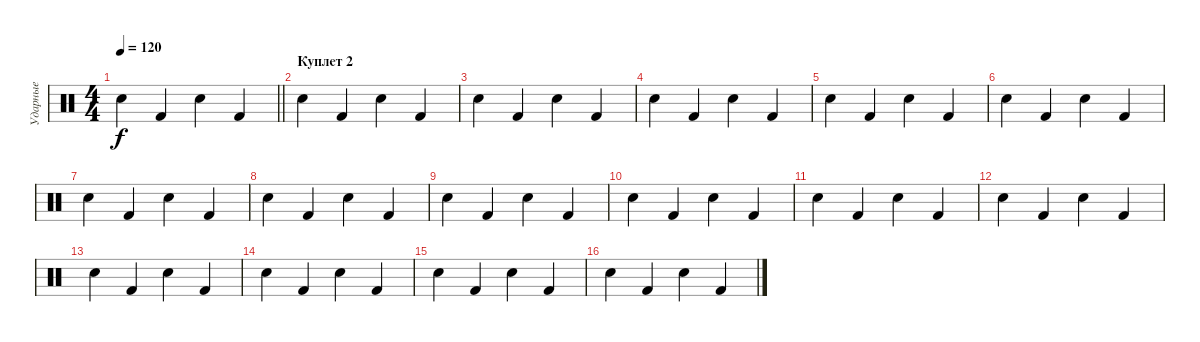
\track ("Ударные" "Ударные") {instrument percussion}
\staff {score}
\articulation defaults
\ts (4 4)
\tempo 120
\clef neutral
\barLineRight lightlight
\ks c "Electric Snare (hit)".4{dy f} "Kick (hit) 2".4 "Electric Snare (hit)".4 "Kick (hit) 2".4
|
\section ("" "Куплет 2")
"Electric Snare (hit)".4 "Kick (hit) 2".4 "Electric Snare (hit)".4 "Kick (hit) 2".4 |
"Electric Snare (hit)".4 "Kick (hit) 2".4 "Electric Snare (hit)".4 "Kick (hit) 2".4 |
"Electric Snare (hit)".4 "Kick (hit) 2".4 "Electric Snare (hit)".4 "Kick (hit) 2".4 |
"Electric Snare (hit)".4 "Kick (hit) 2".4 "Electric Snare (hit)".4 "Kick (hit) 2".4 |
"Electric Snare (hit)".4 "Kick (hit) 2".4 "Electric Snare (hit)".4 "Kick (hit) 2".4 |
"Electric Snare (hit)".4 "Kick (hit) 2".4 "Electric Snare (hit)".4 "Kick (hit) 2".4 |
"Electric Snare (hit)".4 "Kick (hit) 2".4 "Electric Snare (hit)".4 "Kick (hit) 2".4 |
"Electric Snare (hit)".4 "Kick (hit) 2".4 "Electric Snare (hit)".4 "Kick (hit) 2".4 |
"Electric Snare (hit)".4 "Kick (hit) 2".4 "Electric Snare (hit)".4 "Kick (hit) 2".4 |
"Electric Snare (hit)".4 "Kick (hit) 2".4 "Electric Snare (hit)".4 "Kick (hit) 2".4 |
"Electric Snare (hit)".4 "Kick (hit) 2".4 "Electric Snare (hit)".4 "Kick (hit) 2".4 |
"Electric Snare (hit)".4 "Kick (hit) 2".4 "Electric Snare (hit)".4 "Kick (hit) 2".4 |
"Electric Snare (hit)".4 "Kick (hit) 2".4 "Electric Snare (hit)".4 "Kick (hit) 2".4 |
"Electric Snare (hit)".4 "Kick (hit) 2".4 "Electric Snare (hit)".4 "Kick (hit) 2".4 |
"Electric Snare (hit)".4 "Kick (hit) 2".4 "Electric Snare (hit)".4 "Kick (hit) 2".4
